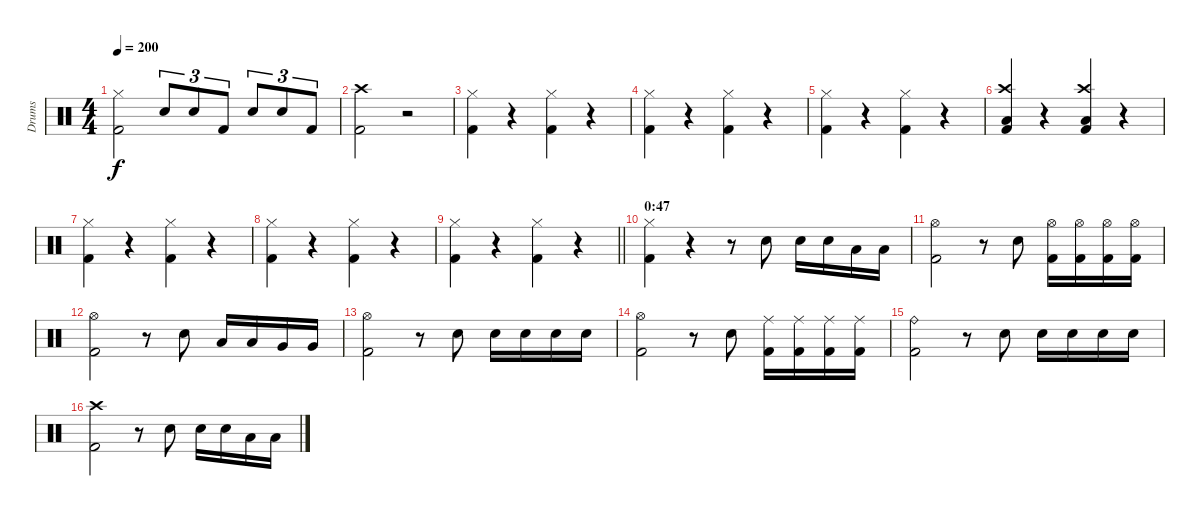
\track ("Drums" "Drums") {instrument percussion}
\staff {score}
\articulation defaults
\ts (4 4)
\tempo 200
\clef neutral
\ks c
("Hi-Hat (closed)" "Kick (hit) 2").2{dy f} "Snare (hit) 2".8{tu (3 2)} "Snare (hit) 2".8{tu (3 2)} "Kick (hit) 2".8{tu (3 2)} "Snare (hit) 2".8{tu (3 2)} "Snare (hit) 2".8{tu (3 2)} "Kick (hit) 2".8{tu (3 2)} |
("Crash high (hit)" "Kick (hit) 2").2 r.2 |
("Hi-Hat (closed)" "Kick (hit) 2").4 r.4 ("Hi-Hat (closed)" "Kick (hit) 2").4 r.4 |
("Hi-Hat (closed)" "Kick (hit) 2").4 r.4 ("Hi-Hat (closed)" "Kick (hit) 2").4 r.4 |
("Hi-Hat (closed)" "Kick (hit) 2").4 r.4 ("Hi-Hat (closed)" "Kick (hit) 2").4 r.4 |
("Crash high (hit)" "Low Floor Tom (hit)" "Kick (hit) 2").4 r.4 ("Crash high (hit)" "Low Floor Tom (hit)" "Kick (hit) 2").4 r.4 |
("Hi-Hat (closed)" "Kick (hit) 2").4 r.4 ("Hi-Hat (closed)" "Kick (hit) 2").4 r.4 |
("Hi-Hat (closed)" "Kick (hit) 2").4 r.4 ("Hi-Hat (closed)" "Kick (hit) 2").4 r.4 |
\barLineRight lightlight
("Hi-Hat (closed)" "Kick (hit) 2").4 r.4 ("Hi-Hat (closed)" "Kick (hit) 2").4 r.4 |
\section ("" "0:47")
("Hi-Hat (closed)" "Kick (hit) 2").4 r.4 r.8 "Snare (hit) 2".8 "Snare (hit) 2".16 "Snare (hit) 2".16 "Low Tom (hit)".16 "Low Tom (hit)".16 |
("Hi-Hat (open)" "Kick (hit) 2").2 r.8 "Snare (hit) 2".8 ("Hi-Hat (open)" "Kick (hit) 2").16 ("Hi-Hat (open)" "Kick (hit) 2").16 ("Hi-Hat (open)" "Kick (hit) 2").16 ("Hi-Hat (open)" "Kick (hit) 2").16 |
("Hi-Hat (open)" "Kick (hit) 2").2 r.8 "Snare (hit) 2".8 "Low Tom (hit)".16 "Low Tom (hit)".16 "Very Low Tom (hit)".16 "Very Low Tom (hit)".16 |
("Hi-Hat (open)" "Kick (hit) 2").2 r.8 "Snare (hit) 2".8 "Snare (hit) 2".16 "Snare (hit) 2".16 "Snare (hit) 2".16 "Snare (hit) 2".16 |
("Hi-Hat (open)" "Kick (hit) 2").2 r.8 "Snare (hit) 2".8 ("Ride (middle)" "Kick (hit) 2").16 ("Ride (middle)" "Kick (hit) 2").16 ("Ride (middle)" "Kick (hit) 2").16 ("Ride (middle)" "Kick (hit) 2").16 |
("Ride (bell)" "Kick (hit) 2").2 r.8 "Snare (hit) 2".8 "Snare (hit) 2".16 "Snare (hit) 2".16 "Snare (hit) 2".16 "Snare (hit) 2".16 |
("Crash high (hit)" "Kick (hit) 2").2 r.8 "Snare (hit) 2".8 "Snare (hit) 2".16 "Snare (hit) 2".16 "Low Tom (hit)".16 "Low Tom (hit)".16
